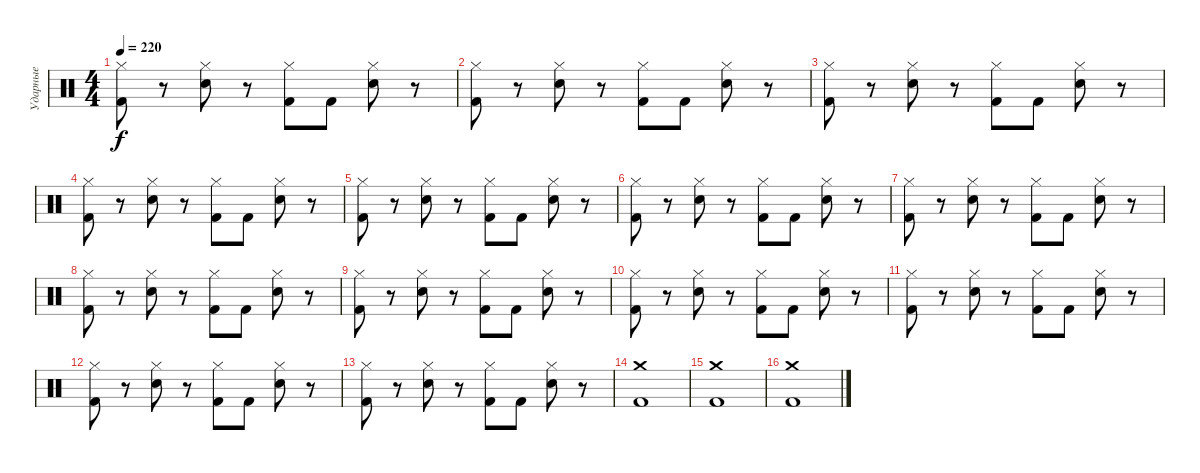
\track ("Ударные" "Ударные") {instrument percussion}
\staff {score}
\articulation defaults
\ts (4 4)
\tempo 220
\clef neutral
\ks c
("Hi-Hat (closed)" "Kick (hit) 2").8{dy f} r.8 ("Hi-Hat (closed)" "Electric Snare (hit)").8 r.8 ("Hi-Hat (closed)" "Kick (hit) 2").8 "Kick (hit) 2".8 ("Hi-Hat (closed)" "Electric Snare (hit)").8 r.8 |
("Hi-Hat (closed)" "Kick (hit) 2").8 r.8 ("Hi-Hat (closed)" "Electric Snare (hit)").8 r.8 ("Hi-Hat (closed)" "Kick (hit) 2").8 "Kick (hit) 2".8 ("Hi-Hat (closed)" "Electric Snare (hit)").8 r.8 |
("Hi-Hat (closed)" "Kick (hit) 2").8 r.8 ("Hi-Hat (closed)" "Electric Snare (hit)").8 r.8 ("Hi-Hat (closed)" "Kick (hit) 2").8 "Kick (hit) 2".8 ("Hi-Hat (closed)" "Electric Snare (hit)").8 r.8 |
("Hi-Hat (closed)" "Kick (hit) 2").8 r.8 ("Hi-Hat (closed)" "Electric Snare (hit)").8 r.8 ("Hi-Hat (closed)" "Kick (hit) 2").8 "Kick (hit) 2".8 ("Hi-Hat (closed)" "Electric Snare (hit)").8 r.8 |
("Hi-Hat (closed)" "Kick (hit) 2").8 r.8 ("Hi-Hat (closed)" "Electric Snare (hit)").8 r.8 ("Hi-Hat (closed)" "Kick (hit) 2").8 "Kick (hit) 2".8 ("Hi-Hat (closed)" "Electric Snare (hit)").8 r.8 |
("Hi-Hat (closed)" "Kick (hit) 2").8 r.8 ("Hi-Hat (closed)" "Electric Snare (hit)").8 r.8 ("Hi-Hat (closed)" "Kick (hit) 2").8 "Kick (hit) 2".8 ("Hi-Hat (closed)" "Electric Snare (hit)").8 r.8 |
("Hi-Hat (closed)" "Kick (hit) 2").8 r.8 ("Hi-Hat (closed)" "Electric Snare (hit)").8 r.8 ("Hi-Hat (closed)" "Kick (hit) 2").8 "Kick (hit) 2".8 ("Hi-Hat (closed)" "Electric Snare (hit)").8 r.8 |
("Hi-Hat (closed)" "Kick (hit) 2").8 r.8 ("Hi-Hat (closed)" "Electric Snare (hit)").8 r.8 ("Hi-Hat (closed)" "Kick (hit) 2").8 "Kick (hit) 2".8 ("Hi-Hat (closed)" "Electric Snare (hit)").8 r.8 |
("Hi-Hat (closed)" "Kick (hit) 2").8 r.8 ("Hi-Hat (closed)" "Electric Snare (hit)").8 r.8 ("Hi-Hat (closed)" "Kick (hit) 2").8 "Kick (hit) 2".8 ("Hi-Hat (closed)" "Electric Snare (hit)").8 r.8 |
("Hi-Hat (closed)" "Kick (hit) 2").8 r.8 ("Hi-Hat (closed)" "Electric Snare (hit)").8 r.8 ("Hi-Hat (closed)" "Kick (hit) 2").8 "Kick (hit) 2".8 ("Hi-Hat (closed)" "Electric Snare (hit)").8 r.8 |
("Hi-Hat (closed)" "Kick (hit) 2").8 r.8 ("Hi-Hat (closed)" "Electric Snare (hit)").8 r.8 ("Hi-Hat (closed)" "Kick (hit) 2").8 "Kick (hit) 2".8 ("Hi-Hat (closed)" "Electric Snare (hit)").8 r.8 |
("Hi-Hat (closed)" "Kick (hit) 2").8 r.8 ("Hi-Hat (closed)" "Electric Snare (hit)").8 r.8 ("Hi-Hat (closed)" "Kick (hit) 2").8 "Kick (hit) 2".8 ("Hi-Hat (closed)" "Electric Snare (hit)").8 r.8 |
("Hi-Hat (closed)" "Kick (hit) 2").8 r.8 ("Hi-Hat (closed)" "Electric Snare (hit)").8 r.8 ("Hi-Hat (closed)" "Kick (hit) 2").8 "Kick (hit) 2".8 ("Hi-Hat (closed)" "Electric Snare (hit)").8 r.8 |
("Crash medium (hit)" "Kick (hit) 2").1 |
("Crash medium (hit)" "Kick (hit) 2").1 |
("Crash medium (hit)" "Kick (hit) 2").1
